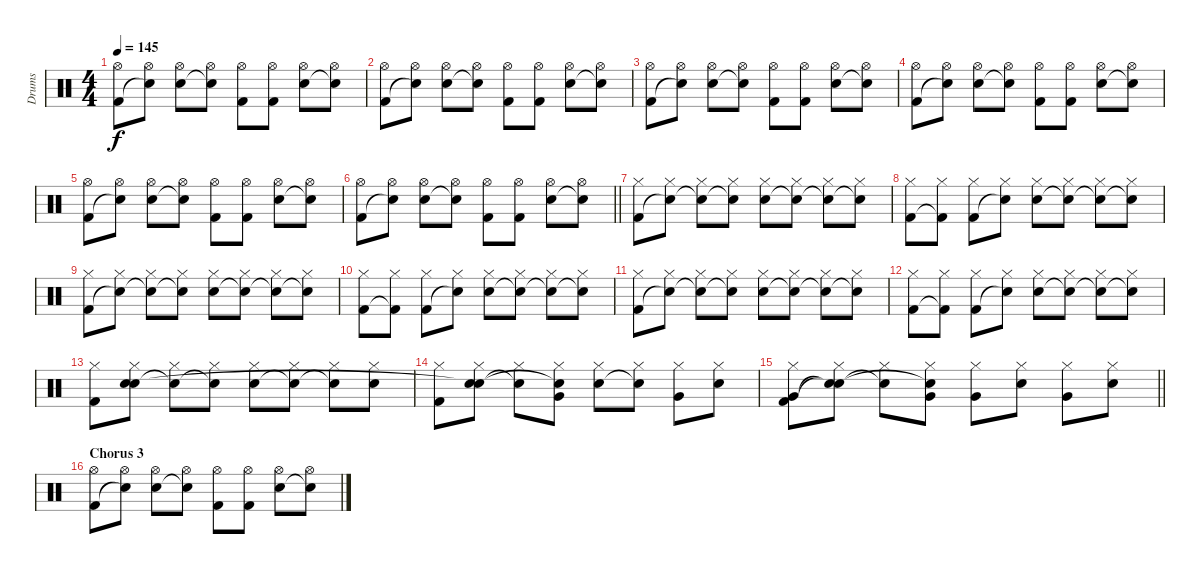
\track ("Drums" "Drums") {instrument percussion}
\staff {score}
\articulation defaults
\ts (4 4)
\tempo 145
\clef neutral
\ks c
("Hi-Hat (open)" "Kick (hit) 2").8{dy f} ("Hi-Hat (open)" "Snare (hit)"{t}).8 ("Hi-Hat (open)" "Electric Snare (hit)").8 ("Hi-Hat (open)" "Snare (hit)"{t}).8 ("Hi-Hat (open)" "Kick (hit) 2").8 ("Hi-Hat (open)" "Kick (hit) 2").8 ("Hi-Hat (open)" "Electric Snare (hit)").8 ("Hi-Hat (open)" "Snare (hit)"{t}).8 |
("Hi-Hat (open)" "Kick (hit) 2").8 ("Hi-Hat (open)" "Snare (hit)"{t}).8 ("Hi-Hat (open)" "Electric Snare (hit)").8 ("Hi-Hat (open)" "Snare (hit)"{t}).8 ("Hi-Hat (open)" "Kick (hit) 2").8 ("Hi-Hat (open)" "Kick (hit) 2").8 ("Hi-Hat (open)" "Electric Snare (hit)").8 ("Hi-Hat (open)" "Snare (hit)"{t}).8 |
("Hi-Hat (open)" "Kick (hit) 2").8 ("Hi-Hat (open)" "Snare (hit)"{t}).8 ("Hi-Hat (open)" "Electric Snare (hit)").8 ("Hi-Hat (open)" "Snare (hit)"{t}).8 ("Hi-Hat (open)" "Kick (hit) 2").8 ("Hi-Hat (open)" "Kick (hit) 2").8 ("Hi-Hat (open)" "Electric Snare (hit)").8 ("Hi-Hat (open)" "Snare (hit)"{t}).8 |
("Hi-Hat (open)" "Kick (hit) 2").8 ("Hi-Hat (open)" "Snare (hit)"{t}).8 ("Hi-Hat (open)" "Electric Snare (hit)").8 ("Hi-Hat (open)" "Snare (hit)"{t}).8 ("Hi-Hat (open)" "Kick (hit) 2").8 ("Hi-Hat (open)" "Kick (hit) 2").8 ("Hi-Hat (open)" "Electric Snare (hit)").8 ("Hi-Hat (open)" "Snare (hit)"{t}).8 |
("Hi-Hat (open)" "Kick (hit) 2").8 ("Hi-Hat (open)" "Snare (hit)"{t}).8 ("Hi-Hat (open)" "Electric Snare (hit)").8 ("Hi-Hat (open)" "Snare (hit)"{t}).8 ("Hi-Hat (open)" "Kick (hit) 2").8 ("Hi-Hat (open)" "Kick (hit) 2").8 ("Hi-Hat (open)" "Electric Snare (hit)").8 ("Hi-Hat (open)" "Snare (hit)"{t}).8 |
\barLineRight lightlight
("Hi-Hat (open)" "Kick (hit) 2").8 ("Hi-Hat (open)" "Snare (hit)"{t}).8 ("Hi-Hat (open)" "Electric Snare (hit)").8 ("Hi-Hat (open)" "Snare (hit)"{t}).8 ("Hi-Hat (open)" "Kick (hit) 2").8 ("Hi-Hat (open)" "Kick (hit) 2").8 ("Hi-Hat (open)" "Electric Snare (hit)").8 ("Hi-Hat (open)" "Snare (hit)"{t}).8 |
("Hi-Hat (closed)" "Kick (hit) 2").8 ("Hi-Hat (closed)" "Snare (hit)"{t}).8 ("Hi-Hat (closed)" "Snare (hit)"{t}).8 ("Hi-Hat (closed)" "Snare (hit)"{t}).8 ("Hi-Hat (closed)" "Electric Snare (hit)").8 ("Hi-Hat (closed)" "Snare (hit)"{t}).8 ("Hi-Hat (closed)" "Snare (hit)"{t}).8 ("Hi-Hat (closed)" "Snare (hit)"{t}).8 |
("Hi-Hat (closed)" "Kick (hit) 2").8 ("Hi-Hat (closed)" "Kick (hit) 2"{t}).8 ("Hi-Hat (closed)" "Kick (hit) 2").8 ("Hi-Hat (closed)" "Snare (hit)"{t}).8 ("Hi-Hat (closed)" "Electric Snare (hit)").8 ("Hi-Hat (closed)" "Snare (hit)"{t}).8 ("Hi-Hat (closed)" "Snare (hit)"{t}).8 ("Hi-Hat (closed)" "Snare (hit)"{t}).8 |
("Hi-Hat (closed)" "Kick (hit) 2").8 ("Hi-Hat (closed)" "Snare (hit)"{t}).8 ("Hi-Hat (closed)" "Snare (hit)"{t}).8 ("Hi-Hat (closed)" "Snare (hit)"{t}).8 ("Hi-Hat (closed)" "Electric Snare (hit)").8 ("Hi-Hat (closed)" "Snare (hit)"{t}).8 ("Hi-Hat (closed)" "Snare (hit)"{t}).8 ("Hi-Hat (closed)" "Snare (hit)"{t}).8 |
("Hi-Hat (closed)" "Kick (hit) 2").8 ("Hi-Hat (closed)" "Kick (hit) 2"{t}).8 ("Hi-Hat (closed)" "Kick (hit) 2").8 ("Hi-Hat (closed)" "Snare (hit)"{t}).8 ("Hi-Hat (closed)" "Electric Snare (hit)").8 ("Hi-Hat (closed)" "Snare (hit)"{t}).8 ("Hi-Hat (closed)" "Snare (hit)"{t}).8 ("Hi-Hat (closed)" "Snare (hit)"{t}).8 |
("Hi-Hat (closed)" "Kick (hit) 2").8 ("Hi-Hat (closed)" "Snare (hit)"{t}).8 ("Hi-Hat (closed)" "Snare (hit)"{t}).8 ("Hi-Hat (closed)" "Snare (hit)"{t}).8 ("Hi-Hat (closed)" "Electric Snare (hit)").8 ("Hi-Hat (closed)" "Snare (hit)"{t}).8 ("Hi-Hat (closed)" "Snare (hit)"{t}).8 ("Hi-Hat (closed)" "Snare (hit)"{t}).8 |
("Hi-Hat (closed)" "Kick (hit) 2").8 ("Hi-Hat (closed)" "Kick (hit) 2"{t}).8 ("Hi-Hat (closed)" "Kick (hit) 2").8 ("Hi-Hat (closed)" "Snare (hit)"{t}).8 ("Hi-Hat (closed)" "Electric Snare (hit)").8 ("Hi-Hat (closed)" "Snare (hit)"{t}).8 ("Hi-Hat (closed)" "Snare (hit)"{t}).8 ("Hi-Hat (closed)" "Snare (hit)"{t}).8 |
("Hi-Hat (closed)" "Kick (hit) 2").8 ("Hi-Hat (closed)" "Electric Snare (hit)" "Snare (hit)").8 ("Hi-Hat (closed)" "Snare (hit)"{t}).8 ("Hi-Hat (closed)" "Snare (hit)"{t}).8 ("Hi-Hat (closed)" "Electric Snare (hit)").8 ("Hi-Hat (closed)" "Snare (hit)"{t}).8 ("Hi-Hat (closed)" "Snare (hit)"{t}).8 ("Hi-Hat (closed)" "Electric Snare (hit)").8 |
("Hi-Hat (closed)" "Kick (hit) 2").8 ("Hi-Hat (closed)" "Electric Snare (hit)" "Snare (hit)"{t}).8 ("Hi-Hat (closed)" "Snare (hit)"{t}).8 ("Hi-Hat (closed)" "Very Low Tom (hit)" "Snare (hit)"{t}).8 ("Hi-Hat (closed)" "Electric Snare (hit)").8 ("Hi-Hat (closed)" "Snare (hit)"{t}).8 ("Hi-Hat (closed)" "Very Low Tom (hit)").8 ("Hi-Hat (closed)" "Electric Snare (hit)").8 |
\barLineRight lightlight
("Hi-Hat (closed)" "Very Low Tom (hit)" "Kick (hit) 2").8 ("Hi-Hat (closed)" "Electric Snare (hit)"{t} "Snare (hit)"{t}).8 ("Hi-Hat (closed)" "Snare (hit)"{t}).8 ("Hi-Hat (closed)" "Very Low Tom (hit)" "Snare (hit)"{t}).8 ("Hi-Hat (closed)" "Very Low Tom (hit)").8 ("Hi-Hat (closed)" "Electric Snare (hit)").8 ("Hi-Hat (closed)" "Very Low Tom (hit)").8 ("Hi-Hat (closed)" "Electric Snare (hit)").8 |
\section ("" "Chorus 3")
("Hi-Hat (open)" "Kick (hit) 2").8 ("Hi-Hat (open)" "Snare (hit)"{t}).8 ("Hi-Hat (open)" "Electric Snare (hit)").8 ("Hi-Hat (open)" "Snare (hit)"{t}).8 ("Hi-Hat (open)" "Kick (hit) 2").8 ("Hi-Hat (open)" "Kick (hit) 2").8 ("Hi-Hat (open)" "Electric Snare (hit)").8 ("Hi-Hat (open)" "Snare (hit)"{t}).8
